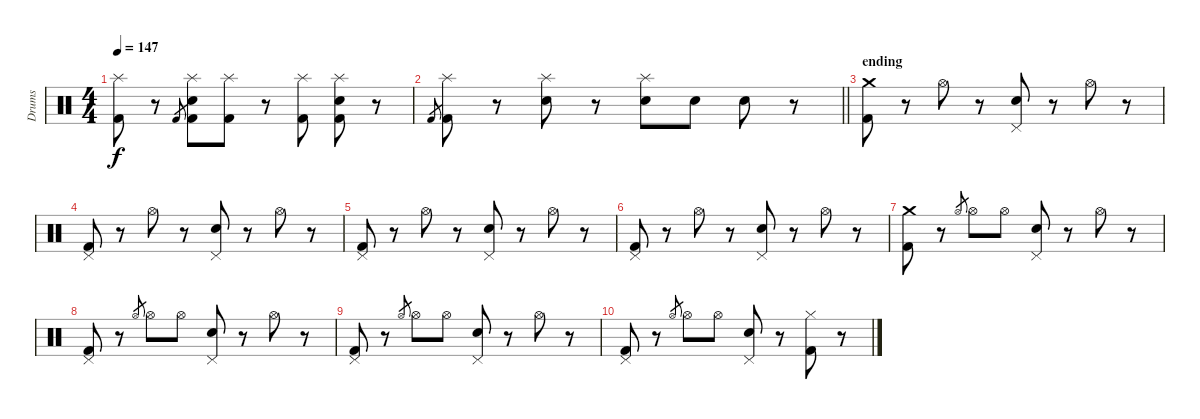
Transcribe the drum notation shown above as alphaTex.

\track ("Drums" "Drums") {instrument percussion}
\staff {score}
\articulation defaults
\ts (4 4)
\tempo 147
\clef neutral
\ks c
("Splash (hit)" "Kick (hit) 2").8{dy f} r.8 "Kick (hit) 2".8{gr} ("Splash (hit)" "Electric Snare (hit)" "Kick (hit) 2").8 ("Splash (hit)" "Kick (hit) 2").8 r.8 ("Splash (hit)" "Kick (hit) 2").8 ("Splash (hit)" "Electric Snare (hit)" "Kick (hit) 2").8 r.8 |
\barLineRight lightlight "Kick (hit) 2".8{gr}
("Splash (hit)" "Kick (hit) 2").8 r.8 ("Splash (hit)" "Electric Snare (hit)").8 r.8 ("Splash (hit)" "Electric Snare (hit)").8 "Electric Snare (hit)".8 "Electric Snare (hit)".8 r.8 |
\section ("" "ending")
("Crash medium (hit)" "Kick (hit) 2").8 r.8 "Hi-Hat (open)".8 r.8 ("Pedal Hi-Hat (hit)" "Electric Snare (hit)").8 r.8 "Hi-Hat (open)".8 r.8 |
("Pedal Hi-Hat (hit)" "Kick (hit) 2").8 r.8 "Hi-Hat (open)".8 r.8 ("Pedal Hi-Hat (hit)" "Electric Snare (hit)").8 r.8 "Hi-Hat (open)".8 r.8 |
("Pedal Hi-Hat (hit)" "Kick (hit) 2").8 r.8 "Hi-Hat (open)".8 r.8 ("Pedal Hi-Hat (hit)" "Electric Snare (hit)").8 r.8 "Hi-Hat (open)".8 r.8 |
("Pedal Hi-Hat (hit)" "Kick (hit) 2").8 r.8 "Hi-Hat (open)".8 r.8 ("Pedal Hi-Hat (hit)" "Electric Snare (hit)").8 r.8 "Hi-Hat (open)".8 r.8 |
("Crash medium (hit)" "Kick (hit) 2").8 r.8 "Hi-Hat (open)".8{gr} "Hi-Hat (open)".8 "Hi-Hat (open)".8 ("Pedal Hi-Hat (hit)" "Electric Snare (hit)").8 r.8 "Hi-Hat (open)".8 r.8 |
("Pedal Hi-Hat (hit)" "Kick (hit) 2").8 r.8 "Hi-Hat (open)".8{gr} "Hi-Hat (open)".8 "Hi-Hat (open)".8 ("Pedal Hi-Hat (hit)" "Electric Snare (hit)").8 r.8 "Hi-Hat (open)".8 r.8 |
("Pedal Hi-Hat (hit)" "Kick (hit) 2").8 r.8 "Hi-Hat (open)".8{gr} "Hi-Hat (open)".8 "Hi-Hat (open)".8 ("Pedal Hi-Hat (hit)" "Electric Snare (hit)").8 r.8 "Hi-Hat (open)".8 r.8 |
("Pedal Hi-Hat (hit)" "Kick (hit) 2").8 r.8 "Hi-Hat (open)".8{gr} "Hi-Hat (open)".8 "Hi-Hat (open)".8 ("Pedal Hi-Hat (hit)" "Electric Snare (hit)").8 r.8 ("Hi-Hat (closed)" "Kick (hit) 2").8 r.8
